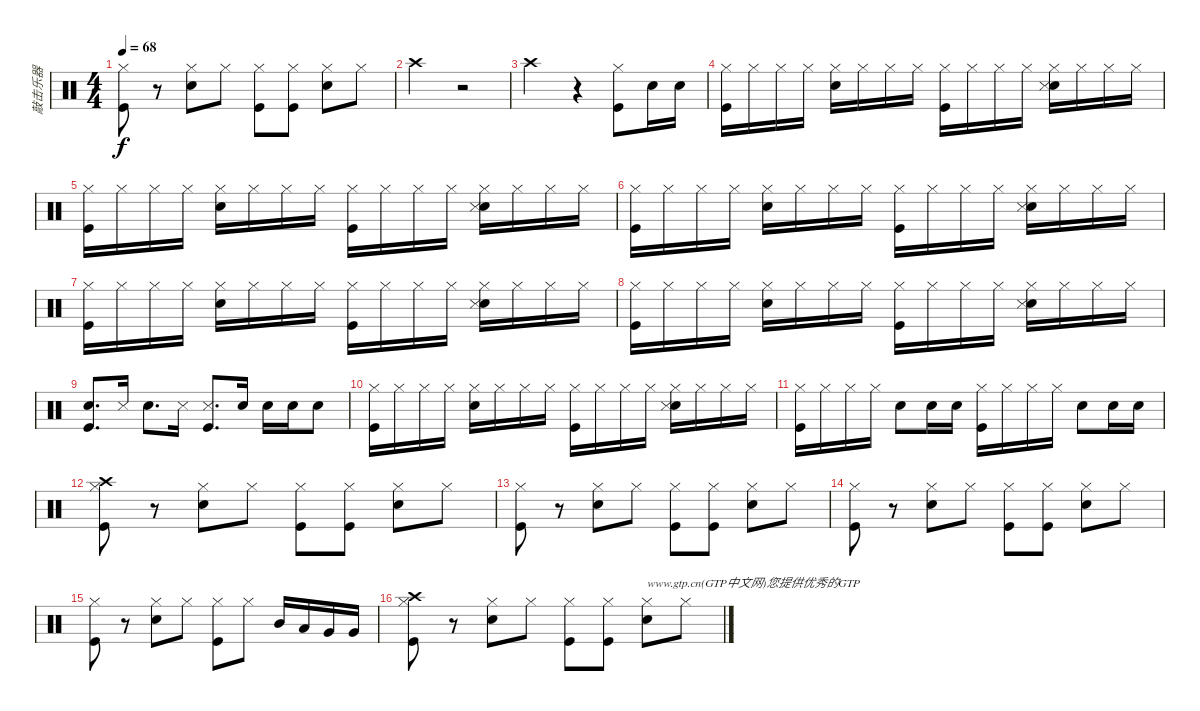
\track ("敲击乐器" "敲击乐器") {instrument percussion}
\staff {score}
\articulation defaults
\ts (4 4)
\tempo 68
\clef neutral
\ks c
("Hi-Hat (closed)" "Kick (hit)").8{dy f} r.8 ("Hi-Hat (closed)" "Snare (hit) 2").8 "Hi-Hat (closed)".8 ("Hi-Hat (closed)" "Kick (hit)").8 ("Hi-Hat (closed)" "Kick (hit)").8 ("Hi-Hat (closed)" "Snare (hit) 2").8 "Hi-Hat (closed)".8 |
"Crash high (hit)".2 r.2 |
"Crash high (hit)".2 r.4 ("Hi-Hat (closed)" "Kick (hit)").8 "Snare (hit) 2".16 "Snare (hit) 2".16 |
("Hi-Hat (closed)" "Kick (hit)").16 "Hi-Hat (closed)".16 "Hi-Hat (closed)".16 "Hi-Hat (closed)".16 ("Hi-Hat (closed)" "Snare (hit) 2").16 "Hi-Hat (closed)".16 "Hi-Hat (closed)".16 "Hi-Hat (closed)".16 ("Hi-Hat (closed)" "Kick (hit)").16 "Hi-Hat (closed)".16 "Hi-Hat (closed)".16 "Hi-Hat (closed)".16 ("Hi-Hat (closed)" "Snare (hit) 2" "Snare (side stick) 3").16 "Hi-Hat (closed)".16 "Hi-Hat (closed)".16 "Hi-Hat (closed)".16 |
("Hi-Hat (closed)" "Kick (hit)").16 "Hi-Hat (closed)".16 "Hi-Hat (closed)".16 "Hi-Hat (closed)".16 ("Hi-Hat (closed)" "Snare (hit) 2").16 "Hi-Hat (closed)".16 "Hi-Hat (closed)".16 "Hi-Hat (closed)".16 ("Hi-Hat (closed)" "Kick (hit)").16 "Hi-Hat (closed)".16 "Hi-Hat (closed)".16 "Hi-Hat (closed)".16 ("Hi-Hat (closed)" "Snare (hit) 2" "Snare (side stick) 3").16 "Hi-Hat (closed)".16 "Hi-Hat (closed)".16 "Hi-Hat (closed)".16 |
("Hi-Hat (closed)" "Kick (hit)").16 "Hi-Hat (closed)".16 "Hi-Hat (closed)".16 "Hi-Hat (closed)".16 ("Hi-Hat (closed)" "Snare (hit) 2").16 "Hi-Hat (closed)".16 "Hi-Hat (closed)".16 "Hi-Hat (closed)".16 ("Hi-Hat (closed)" "Kick (hit)").16 "Hi-Hat (closed)".16 "Hi-Hat (closed)".16 "Hi-Hat (closed)".16 ("Hi-Hat (closed)" "Snare (hit) 2" "Snare (side stick) 3").16 "Hi-Hat (closed)".16 "Hi-Hat (closed)".16 "Hi-Hat (closed)".16 |
("Hi-Hat (closed)" "Kick (hit)").16 "Hi-Hat (closed)".16 "Hi-Hat (closed)".16 "Hi-Hat (closed)".16 ("Hi-Hat (closed)" "Snare (hit) 2").16 "Hi-Hat (closed)".16 "Hi-Hat (closed)".16 "Hi-Hat (closed)".16 ("Hi-Hat (closed)" "Kick (hit)").16 "Hi-Hat (closed)".16 "Hi-Hat (closed)".16 "Hi-Hat (closed)".16 ("Hi-Hat (closed)" "Snare (hit) 2" "Snare (side stick) 3").16 "Hi-Hat (closed)".16 "Hi-Hat (closed)".16 "Hi-Hat (closed)".16 |
("Hi-Hat (closed)" "Kick (hit)").16 "Hi-Hat (closed)".16 "Hi-Hat (closed)".16 "Hi-Hat (closed)".16 ("Hi-Hat (closed)" "Snare (hit) 2").16 "Hi-Hat (closed)".16 "Hi-Hat (closed)".16 "Hi-Hat (closed)".16 ("Hi-Hat (closed)" "Kick (hit)").16 "Hi-Hat (closed)".16 "Hi-Hat (closed)".16 "Hi-Hat (closed)".16 ("Hi-Hat (closed)" "Snare (hit) 2" "Snare (side stick) 3").16 "Hi-Hat (closed)".16 "Hi-Hat (closed)".16 "Hi-Hat (closed)".16 |
("Snare (hit) 2" "Kick (hit)").8{d} "Snare (side stick) 3".16 "Snare (hit) 2".8{d} "Snare (side stick) 3".16 ("Snare (side stick) 3" "Kick (hit)").8{d} "Snare (hit) 2".16 "Snare (hit) 2".16 "Snare (hit) 2".16 "Snare (hit) 2".8 |
("Hi-Hat (closed)" "Kick (hit)").16 "Hi-Hat (closed)".16 "Hi-Hat (closed)".16 "Hi-Hat (closed)".16 ("Hi-Hat (closed)" "Snare (hit) 2").16 "Hi-Hat (closed)".16 "Hi-Hat (closed)".16 "Hi-Hat (closed)".16 ("Hi-Hat (closed)" "Kick (hit)").16 "Hi-Hat (closed)".16 "Hi-Hat (closed)".16 "Hi-Hat (closed)".16 ("Hi-Hat (closed)" "Snare (hit) 2" "Snare (side stick) 3").16 "Hi-Hat (closed)".16 "Hi-Hat (closed)".16 "Hi-Hat (closed)".16 |
("Hi-Hat (closed)" "Kick (hit)").16 "Hi-Hat (closed)".16 "Hi-Hat (closed)".16 "Hi-Hat (closed)".16 "Snare (hit) 2".8 "Snare (hit) 2".16 "Snare (hit) 2".16 ("Hi-Hat (closed)" "Kick (hit)").16 "Hi-Hat (closed)".16 "Hi-Hat (closed)".16 "Hi-Hat (closed)".16 "Snare (hit) 2".8 "Snare (hit) 2".16 "Snare (hit) 2".16 |
("Hi-Hat (closed)" "Crash high (hit)" "Kick (hit)").8 r.8 ("Hi-Hat (closed)" "Snare (hit) 2").8 "Hi-Hat (closed)".8 ("Hi-Hat (closed)" "Kick (hit)").8 ("Hi-Hat (closed)" "Kick (hit)").8 ("Hi-Hat (closed)" "Snare (hit) 2").8 "Hi-Hat (closed)".8 |
("Hi-Hat (closed)" "Kick (hit)").8 r.8 ("Hi-Hat (closed)" "Snare (hit) 2").8 "Hi-Hat (closed)".8 ("Hi-Hat (closed)" "Kick (hit)").8 ("Hi-Hat (closed)" "Kick (hit)").8 ("Hi-Hat (closed)" "Snare (hit) 2").8 "Hi-Hat (closed)".8 |
("Hi-Hat (closed)" "Kick (hit)").8 r.8 ("Hi-Hat (closed)" "Snare (hit) 2").8 "Hi-Hat (closed)".8 ("Hi-Hat (closed)" "Kick (hit)").8 ("Hi-Hat (closed)" "Kick (hit)").8 ("Hi-Hat (closed)" "Snare (hit) 2").8 "Hi-Hat (closed)".8 |
("Hi-Hat (closed)" "Kick (hit)").8 r.8 ("Hi-Hat (closed)" "Snare (hit) 2").8 "Hi-Hat (closed)".8 ("Hi-Hat (closed)" "Kick (hit)").8 "Hi-Hat (closed)".8 "Mid Tom (hit)".16 "Low Tom (hit)".16 "Very Low Tom (hit)".16 "Very Low Tom (hit)".16 |
("Hi-Hat (closed)" "Crash high (hit)" "Kick (hit)").8 r.8 ("Hi-Hat (closed)" "Snare (hit) 2").8 "Hi-Hat (closed)".8 ("Hi-Hat (closed)" "Kick (hit)").8 ("Hi-Hat (closed)" "Kick (hit)").8 ("Hi-Hat (closed)" "Snare (hit) 2").8{txt "www.gtp.cn(GTP中文网)您提供优秀的GTP"} "Hi-Hat (closed)".8
